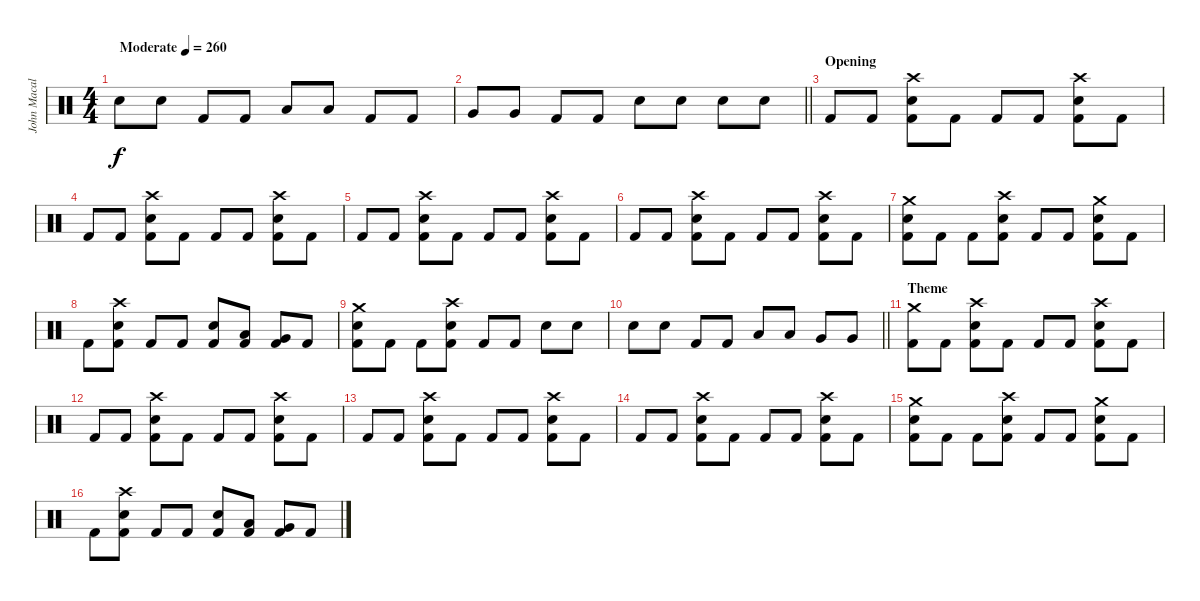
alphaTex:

\track ("John Macaluso" "John Macal") {instrument percussion}
\staff {score}
\articulation defaults
\ts (4 4)
\tempo (260 "Moderate")
\clef neutral
\ks c "Snare (hit) 2".8{dy f} "Snare (hit) 2".8 "Kick (hit) 2".8 "Kick (hit) 2".8 "Low Tom (hit)".8 "Low Tom (hit)".8 "Kick (hit) 2".8 "Kick (hit) 2".8
|
\barLineRight lightlight "Very Low Tom (hit)".8 "Very Low Tom (hit)".8 "Kick (hit) 2".8 "Kick (hit) 2".8 "Snare (hit) 2".8 "Snare (hit) 2".8 "Snare (hit) 2".8 "Snare (hit) 2".8
|
\section ("" "Opening")
"Kick (hit) 2".8 "Kick (hit) 2".8 ("Crash high (hit)" "Snare (hit) 2" "Kick (hit) 2").8 "Kick (hit) 2".8 "Kick (hit) 2".8 "Kick (hit) 2".8 ("Crash high (hit)" "Snare (hit) 2" "Kick (hit) 2").8 "Kick (hit) 2".8 |
"Kick (hit) 2".8 "Kick (hit) 2".8 ("Crash high (hit)" "Snare (hit) 2" "Kick (hit) 2").8 "Kick (hit) 2".8 "Kick (hit) 2".8 "Kick (hit) 2".8 ("Crash high (hit)" "Snare (hit) 2" "Kick (hit) 2").8 "Kick (hit) 2".8 |
"Kick (hit) 2".8 "Kick (hit) 2".8 ("Crash high (hit)" "Snare (hit) 2" "Kick (hit) 2").8 "Kick (hit) 2".8 "Kick (hit) 2".8 "Kick (hit) 2".8 ("Crash high (hit)" "Snare (hit) 2" "Kick (hit) 2").8 "Kick (hit) 2".8 |
"Kick (hit) 2".8 "Kick (hit) 2".8 ("Crash high (hit)" "Snare (hit) 2" "Kick (hit) 2").8 "Kick (hit) 2".8 "Kick (hit) 2".8 "Kick (hit) 2".8 ("Crash high (hit)" "Snare (hit) 2" "Kick (hit) 2").8 "Kick (hit) 2".8 |
("Crash medium (hit)" "Snare (hit) 2" "Kick (hit) 2").8 "Kick (hit) 2".8 "Kick (hit) 2".8 ("Crash high (hit)" "Snare (hit) 2" "Kick (hit) 2").8 "Kick (hit) 2".8 "Kick (hit) 2".8 ("Crash medium (hit)" "Snare (hit) 2" "Kick (hit) 2").8 "Kick (hit) 2".8 |
"Kick (hit) 2".8 ("Crash high (hit)" "Snare (hit) 2" "Kick (hit) 2").8 "Kick (hit) 2".8 "Kick (hit) 2".8 ("Snare (hit) 2" "Kick (hit) 2").8 ("Low Tom (hit)" "Kick (hit) 2").8 ("Very Low Tom (hit)" "Kick (hit) 2").8 "Kick (hit) 2".8 |
("Crash medium (hit)" "Snare (hit) 2" "Kick (hit) 2").8 "Kick (hit) 2".8 "Kick (hit) 2".8 ("Crash high (hit)" "Snare (hit) 2" "Kick (hit) 2").8 "Kick (hit) 2".8 "Kick (hit) 2".8 "Snare (hit) 2".8 "Snare (hit) 2".8 |
\barLineRight lightlight "Snare (hit) 2".8 "Snare (hit) 2".8 "Kick (hit) 2".8 "Kick (hit) 2".8 "Low Tom (hit)".8 "Low Tom (hit)".8 "Very Low Tom (hit)".8 "Very Low Tom (hit)".8
|
\section ("" "Theme")
("Crash medium (hit)" "Kick (hit) 2").8 "Kick (hit) 2".8 ("Crash high (hit)" "Snare (hit) 2" "Kick (hit) 2").8 "Kick (hit) 2".8 "Kick (hit) 2".8 "Kick (hit) 2".8 ("Crash high (hit)" "Snare (hit) 2" "Kick (hit) 2").8 "Kick (hit) 2".8 |
"Kick (hit) 2".8 "Kick (hit) 2".8 ("Crash high (hit)" "Snare (hit) 2" "Kick (hit) 2").8 "Kick (hit) 2".8 "Kick (hit) 2".8 "Kick (hit) 2".8 ("Crash high (hit)" "Snare (hit) 2" "Kick (hit) 2").8 "Kick (hit) 2".8 |
"Kick (hit) 2".8 "Kick (hit) 2".8 ("Crash high (hit)" "Snare (hit) 2" "Kick (hit) 2").8 "Kick (hit) 2".8 "Kick (hit) 2".8 "Kick (hit) 2".8 ("Crash high (hit)" "Snare (hit) 2" "Kick (hit) 2").8 "Kick (hit) 2".8 |
"Kick (hit) 2".8 "Kick (hit) 2".8 ("Crash high (hit)" "Snare (hit) 2" "Kick (hit) 2").8 "Kick (hit) 2".8 "Kick (hit) 2".8 "Kick (hit) 2".8 ("Crash high (hit)" "Snare (hit) 2" "Kick (hit) 2").8 "Kick (hit) 2".8 |
("Crash medium (hit)" "Snare (hit) 2" "Kick (hit) 2").8 "Kick (hit) 2".8 "Kick (hit) 2".8 ("Crash high (hit)" "Snare (hit) 2" "Kick (hit) 2").8 "Kick (hit) 2".8 "Kick (hit) 2".8 ("Crash medium (hit)" "Snare (hit) 2" "Kick (hit) 2").8 "Kick (hit) 2".8 |
"Kick (hit) 2".8 ("Crash high (hit)" "Snare (hit) 2" "Kick (hit) 2").8 "Kick (hit) 2".8 "Kick (hit) 2".8 ("Snare (hit) 2" "Kick (hit) 2").8 ("Low Tom (hit)" "Kick (hit) 2").8 ("Very Low Tom (hit)" "Kick (hit) 2").8 "Kick (hit) 2".8
